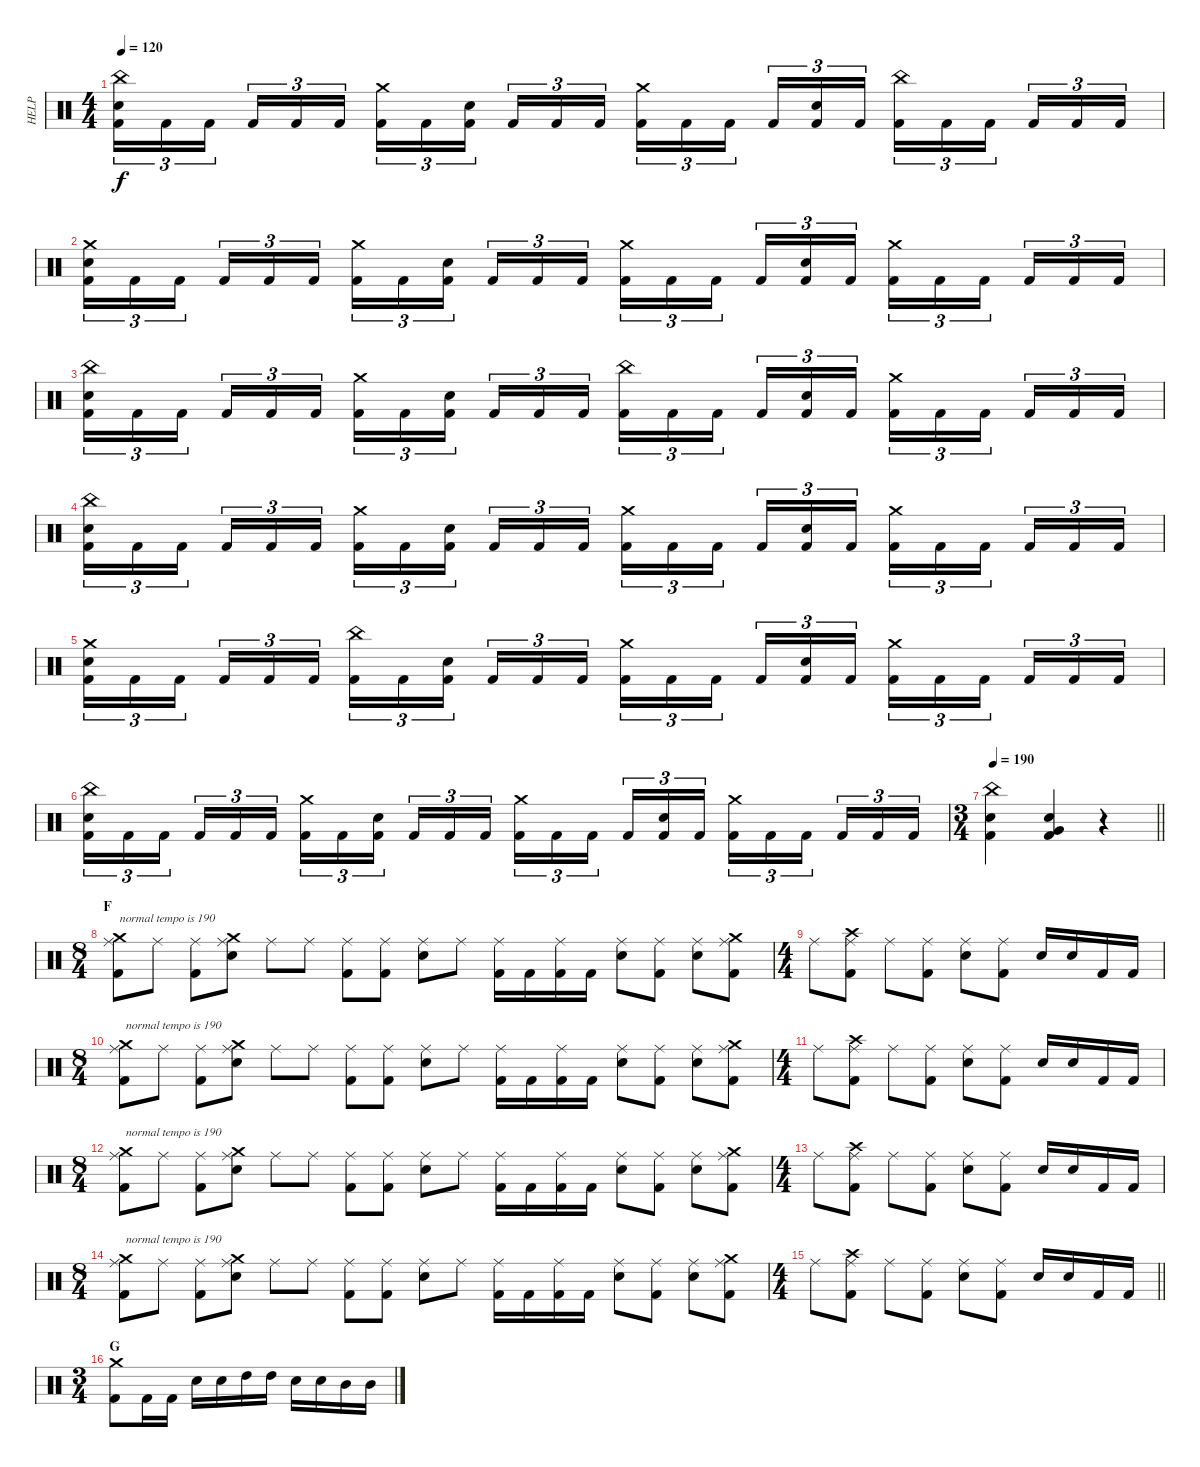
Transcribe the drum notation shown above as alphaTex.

\track ("HELP" "HELP") {instrument percussion}
\staff {score}
\articulation defaults
\ts (4 4)
\tempo 120
\clef neutral
\ks c
("China (hit)" "Electric Snare (hit)" "Kick (hit) 2").16{tu (3 2) dy f} "Kick (hit) 2".16{tu (3 2)} "Kick (hit) 2".16{tu (3 2) beam splitsecondary} "Kick (hit) 2".16{tu (3 2)} "Kick (hit) 2".16{tu (3 2)} "Kick (hit) 2".16{tu (3 2)} ("Crash medium (hit)" "Kick (hit) 2").16{tu (3 2)} "Kick (hit) 2".16{tu (3 2)} ("Electric Snare (hit)" "Kick (hit) 2").16{tu (3 2) beam splitsecondary} "Kick (hit) 2".16{tu (3 2)} "Kick (hit) 2".16{tu (3 2)} "Kick (hit) 2".16{tu (3 2)} ("Crash medium (hit)" "Kick (hit) 2").16{tu (3 2)} "Kick (hit) 2".16{tu (3 2)} "Kick (hit) 2".16{tu (3 2) beam splitsecondary} "Kick (hit) 2".16{tu (3 2)} ("Electric Snare (hit)" "Kick (hit) 2").16{tu (3 2)} "Kick (hit) 2".16{tu (3 2)} ("China (hit)" "Kick (hit) 2").16{tu (3 2)} "Kick (hit) 2".16{tu (3 2)} "Kick (hit) 2".16{tu (3 2) beam splitsecondary} "Kick (hit) 2".16{tu (3 2)} "Kick (hit) 2".16{tu (3 2)} "Kick (hit) 2".16{tu (3 2)} |
("Crash medium (hit)" "Electric Snare (hit)" "Kick (hit) 2").16{tu (3 2)} "Kick (hit) 2".16{tu (3 2)} "Kick (hit) 2".16{tu (3 2) beam splitsecondary} "Kick (hit) 2".16{tu (3 2)} "Kick (hit) 2".16{tu (3 2)} "Kick (hit) 2".16{tu (3 2)} ("Crash medium (hit)" "Kick (hit) 2").16{tu (3 2)} "Kick (hit) 2".16{tu (3 2)} ("Electric Snare (hit)" "Kick (hit) 2").16{tu (3 2) beam splitsecondary} "Kick (hit) 2".16{tu (3 2)} "Kick (hit) 2".16{tu (3 2)} "Kick (hit) 2".16{tu (3 2)} ("Crash medium (hit)" "Kick (hit) 2").16{tu (3 2)} "Kick (hit) 2".16{tu (3 2)} "Kick (hit) 2".16{tu (3 2) beam splitsecondary} "Kick (hit) 2".16{tu (3 2)} ("Electric Snare (hit)" "Kick (hit) 2").16{tu (3 2)} "Kick (hit) 2".16{tu (3 2)} ("Crash medium (hit)" "Kick (hit) 2").16{tu (3 2)} "Kick (hit) 2".16{tu (3 2)} "Kick (hit) 2".16{tu (3 2) beam splitsecondary} "Kick (hit) 2".16{tu (3 2)} "Kick (hit) 2".16{tu (3 2)} "Kick (hit) 2".16{tu (3 2)} |
("China (hit)" "Electric Snare (hit)" "Kick (hit) 2").16{tu (3 2)} "Kick (hit) 2".16{tu (3 2)} "Kick (hit) 2".16{tu (3 2) beam splitsecondary} "Kick (hit) 2".16{tu (3 2)} "Kick (hit) 2".16{tu (3 2)} "Kick (hit) 2".16{tu (3 2)} ("Crash medium (hit)" "Kick (hit) 2").16{tu (3 2)} "Kick (hit) 2".16{tu (3 2)} ("Electric Snare (hit)" "Kick (hit) 2").16{tu (3 2) beam splitsecondary} "Kick (hit) 2".16{tu (3 2)} "Kick (hit) 2".16{tu (3 2)} "Kick (hit) 2".16{tu (3 2)} ("China (hit)" "Kick (hit) 2").16{tu (3 2)} "Kick (hit) 2".16{tu (3 2)} "Kick (hit) 2".16{tu (3 2) beam splitsecondary} "Kick (hit) 2".16{tu (3 2)} ("Electric Snare (hit)" "Kick (hit) 2").16{tu (3 2)} "Kick (hit) 2".16{tu (3 2)} ("Crash medium (hit)" "Kick (hit) 2").16{tu (3 2)} "Kick (hit) 2".16{tu (3 2)} "Kick (hit) 2".16{tu (3 2) beam splitsecondary} "Kick (hit) 2".16{tu (3 2)} "Kick (hit) 2".16{tu (3 2)} "Kick (hit) 2".16{tu (3 2)} |
("China (hit)" "Electric Snare (hit)" "Kick (hit) 2").16{tu (3 2)} "Kick (hit) 2".16{tu (3 2)} "Kick (hit) 2".16{tu (3 2) beam splitsecondary} "Kick (hit) 2".16{tu (3 2)} "Kick (hit) 2".16{tu (3 2)} "Kick (hit) 2".16{tu (3 2)} ("Crash medium (hit)" "Kick (hit) 2").16{tu (3 2)} "Kick (hit) 2".16{tu (3 2)} ("Electric Snare (hit)" "Kick (hit) 2").16{tu (3 2) beam splitsecondary} "Kick (hit) 2".16{tu (3 2)} "Kick (hit) 2".16{tu (3 2)} "Kick (hit) 2".16{tu (3 2)} ("Crash medium (hit)" "Kick (hit) 2").16{tu (3 2)} "Kick (hit) 2".16{tu (3 2)} "Kick (hit) 2".16{tu (3 2) beam splitsecondary} "Kick (hit) 2".16{tu (3 2)} ("Electric Snare (hit)" "Kick (hit) 2").16{tu (3 2)} "Kick (hit) 2".16{tu (3 2)} ("Crash medium (hit)" "Kick (hit) 2").16{tu (3 2)} "Kick (hit) 2".16{tu (3 2)} "Kick (hit) 2".16{tu (3 2) beam splitsecondary} "Kick (hit) 2".16{tu (3 2)} "Kick (hit) 2".16{tu (3 2)} "Kick (hit) 2".16{tu (3 2)} |
("Crash medium (hit)" "Electric Snare (hit)" "Kick (hit) 2").16{tu (3 2)} "Kick (hit) 2".16{tu (3 2)} "Kick (hit) 2".16{tu (3 2) beam splitsecondary} "Kick (hit) 2".16{tu (3 2)} "Kick (hit) 2".16{tu (3 2)} "Kick (hit) 2".16{tu (3 2)} ("China (hit)" "Kick (hit) 2").16{tu (3 2)} "Kick (hit) 2".16{tu (3 2)} ("Electric Snare (hit)" "Kick (hit) 2").16{tu (3 2) beam splitsecondary} "Kick (hit) 2".16{tu (3 2)} "Kick (hit) 2".16{tu (3 2)} "Kick (hit) 2".16{tu (3 2)} ("Crash medium (hit)" "Kick (hit) 2").16{tu (3 2)} "Kick (hit) 2".16{tu (3 2)} "Kick (hit) 2".16{tu (3 2) beam splitsecondary} "Kick (hit) 2".16{tu (3 2)} ("Electric Snare (hit)" "Kick (hit) 2").16{tu (3 2)} "Kick (hit) 2".16{tu (3 2)} ("Crash medium (hit)" "Kick (hit) 2").16{tu (3 2)} "Kick (hit) 2".16{tu (3 2)} "Kick (hit) 2".16{tu (3 2) beam splitsecondary} "Kick (hit) 2".16{tu (3 2)} "Kick (hit) 2".16{tu (3 2)} "Kick (hit) 2".16{tu (3 2)} |
("China (hit)" "Electric Snare (hit)" "Kick (hit) 2").16{tu (3 2)} "Kick (hit) 2".16{tu (3 2)} "Kick (hit) 2".16{tu (3 2) beam splitsecondary} "Kick (hit) 2".16{tu (3 2)} "Kick (hit) 2".16{tu (3 2)} "Kick (hit) 2".16{tu (3 2)} ("Crash medium (hit)" "Kick (hit) 2").16{tu (3 2)} "Kick (hit) 2".16{tu (3 2)} ("Electric Snare (hit)" "Kick (hit) 2").16{tu (3 2) beam splitsecondary} "Kick (hit) 2".16{tu (3 2)} "Kick (hit) 2".16{tu (3 2)} "Kick (hit) 2".16{tu (3 2)} ("Crash medium (hit)" "Kick (hit) 2").16{tu (3 2)} "Kick (hit) 2".16{tu (3 2)} "Kick (hit) 2".16{tu (3 2) beam splitsecondary} "Kick (hit) 2".16{tu (3 2)} ("Electric Snare (hit)" "Kick (hit) 2").16{tu (3 2)} "Kick (hit) 2".16{tu (3 2)} ("Crash medium (hit)" "Kick (hit) 2").16{tu (3 2)} "Kick (hit) 2".16{tu (3 2)} "Kick (hit) 2".16{tu (3 2) beam splitsecondary} "Kick (hit) 2".16{tu (3 2)} "Kick (hit) 2".16{tu (3 2)} "Kick (hit) 2".16{tu (3 2)} |
\ts (3 4)
\tempo 190
\barLineRight lightlight
("China (hit)" "Snare (hit) 2" "Kick (hit) 2").4 ("Very Low Tom (hit)" "Snare (hit) 2" "Kick (hit) 2").4 r.4 |
\ts (8 4)
\section ("" "F")
("Crash medium (hit)" "Ride (middle)" "Kick (hit) 2").8{txt "normal tempo is 190"} "Ride (middle)".8 ("Ride (middle)" "Kick (hit) 2").8 ("Crash medium (hit)" "Ride (middle)" "Snare (hit) 2").8 "Ride (middle)".8 "Ride (middle)".8 ("Ride (middle)" "Kick (hit) 2").8 ("Ride (middle)" "Kick (hit) 2").8 ("Ride (middle)" "Snare (hit) 2").8 "Ride (middle)".8 ("Ride (middle)" "Kick (hit) 2").16 "Kick (hit) 2".16 ("Ride (middle)" "Kick (hit) 2").16 "Kick (hit) 2".16 ("Snare (hit) 2" "Ride (middle)").8 ("Ride (middle)" "Kick (hit) 2").8 ("Snare (hit) 2" "Ride (middle)").8 ("Crash medium (hit)" "Ride (middle)" "Kick (hit) 2").8 |
\ts (4 4)
"Ride (middle)".8 ("Crash high (hit)" "Ride (middle)" "Kick (hit) 2").8 "Ride (middle)".8 ("Ride (middle)" "Kick (hit) 2").8 ("Ride (middle)" "Snare (hit) 2").8 ("Ride (middle)" "Kick (hit) 2").8 "Snare (hit) 2".16 "Snare (hit) 2".16 "Kick (hit) 2".16 "Kick (hit) 2".16 |
\ts (8 4)
("Crash medium (hit)" "Ride (middle)" "Kick (hit) 2").8{txt "normal tempo is 190"} "Ride (middle)".8 ("Ride (middle)" "Kick (hit) 2").8 ("Crash medium (hit)" "Ride (middle)" "Snare (hit) 2").8 "Ride (middle)".8 "Ride (middle)".8 ("Ride (middle)" "Kick (hit) 2").8 ("Ride (middle)" "Kick (hit) 2").8 ("Ride (middle)" "Snare (hit) 2").8 "Ride (middle)".8 ("Ride (middle)" "Kick (hit) 2").16 "Kick (hit) 2".16 ("Ride (middle)" "Kick (hit) 2").16 "Kick (hit) 2".16 ("Snare (hit) 2" "Ride (middle)").8 ("Ride (middle)" "Kick (hit) 2").8 ("Snare (hit) 2" "Ride (middle)").8 ("Crash medium (hit)" "Ride (middle)" "Kick (hit) 2").8 |
\ts (4 4)
"Ride (middle)".8 ("Crash high (hit)" "Ride (middle)" "Kick (hit) 2").8 "Ride (middle)".8 ("Ride (middle)" "Kick (hit) 2").8 ("Ride (middle)" "Snare (hit) 2").8 ("Ride (middle)" "Kick (hit) 2").8 "Snare (hit) 2".16 "Snare (hit) 2".16 "Kick (hit) 2".16 "Kick (hit) 2".16 |
\ts (8 4)
("Crash medium (hit)" "Ride (middle)" "Kick (hit) 2").8{txt "normal tempo is 190"} "Ride (middle)".8 ("Ride (middle)" "Kick (hit) 2").8 ("Crash medium (hit)" "Ride (middle)" "Snare (hit) 2").8 "Ride (middle)".8 "Ride (middle)".8 ("Ride (middle)" "Kick (hit) 2").8 ("Ride (middle)" "Kick (hit) 2").8 ("Ride (middle)" "Snare (hit) 2").8 "Ride (middle)".8 ("Ride (middle)" "Kick (hit) 2").16 "Kick (hit) 2".16 ("Ride (middle)" "Kick (hit) 2").16 "Kick (hit) 2".16 ("Snare (hit) 2" "Ride (middle)").8 ("Ride (middle)" "Kick (hit) 2").8 ("Snare (hit) 2" "Ride (middle)").8 ("Crash medium (hit)" "Ride (middle)" "Kick (hit) 2").8 |
\ts (4 4)
"Ride (middle)".8 ("Crash high (hit)" "Ride (middle)" "Kick (hit) 2").8 "Ride (middle)".8 ("Ride (middle)" "Kick (hit) 2").8 ("Ride (middle)" "Snare (hit) 2").8 ("Ride (middle)" "Kick (hit) 2").8 "Snare (hit) 2".16 "Snare (hit) 2".16 "Kick (hit) 2".16 "Kick (hit) 2".16 |
\ts (8 4)
("Crash medium (hit)" "Ride (middle)" "Kick (hit) 2").8{txt "normal tempo is 190"} "Ride (middle)".8 ("Ride (middle)" "Kick (hit) 2").8 ("Crash medium (hit)" "Ride (middle)" "Snare (hit) 2").8 "Ride (middle)".8 "Ride (middle)".8 ("Ride (middle)" "Kick (hit) 2").8 ("Ride (middle)" "Kick (hit) 2").8 ("Ride (middle)" "Snare (hit) 2").8 "Ride (middle)".8 ("Ride (middle)" "Kick (hit) 2").16 "Kick (hit) 2".16 ("Ride (middle)" "Kick (hit) 2").16 "Kick (hit) 2".16 ("Snare (hit) 2" "Ride (middle)").8 ("Ride (middle)" "Kick (hit) 2").8 ("Snare (hit) 2" "Ride (middle)").8 ("Crash medium (hit)" "Ride (middle)" "Kick (hit) 2").8 |
\ts (4 4)
\barLineRight lightlight "Ride (middle)".8
("Crash high (hit)" "Ride (middle)" "Kick (hit) 2").8 "Ride (middle)".8 ("Ride (middle)" "Kick (hit) 2").8 ("Ride (middle)" "Snare (hit) 2").8 ("Ride (middle)" "Kick (hit) 2").8 "Snare (hit) 2".16 "Snare (hit) 2".16 "Kick (hit) 2".16 "Kick (hit) 2".16 |
\ts (3 4)
\section ("" "G")
("Crash medium (hit)" "Kick (hit) 2").8 "Kick (hit) 2".16 "Kick (hit) 2".16 "Snare (hit) 2".16 "Snare (hit) 2".16 "High Tom (hit)".16 "High Tom (hit)".16 "Snare (hit) 2".16 "Snare (hit) 2".16 "Mid Tom (hit)".16 "Mid Tom (hit)".16
